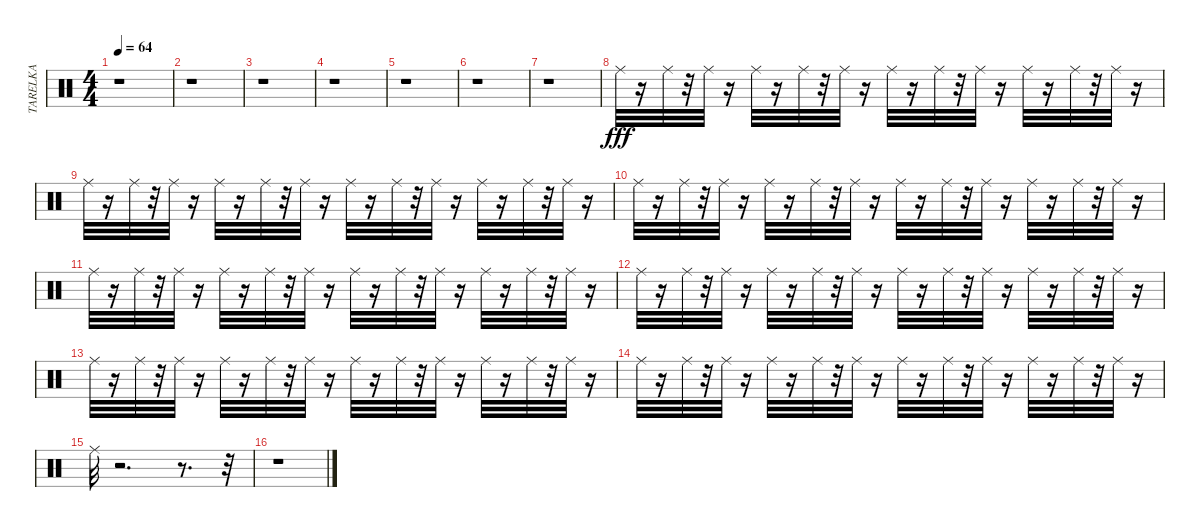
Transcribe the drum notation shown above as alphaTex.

\track ("TARELKA" "TARELKA") {instrument percussion}
\staff {score}
\articulation defaults
\ts (4 4)
\tempo 64
\clef neutral
\ks c
r.1{dy fff} |
r.1 |
r.1 |
r.1 |
r.1 |
r.1 |
r.1 |
"Ride (middle)".32 r.16 "Ride (middle)".32 r.32 "Ride (middle)".32 r.16 "Ride (middle)".32 r.16 "Ride (middle)".32 r.32 "Ride (middle)".32 r.16 "Ride (middle)".32 r.16 "Ride (middle)".32 r.32 "Ride (middle)".32 r.16 "Ride (middle)".32 r.16 "Ride (middle)".32 r.32 "Ride (middle)".32 r.16 |
"Ride (middle)".32 r.16 "Ride (middle)".32 r.32 "Ride (middle)".32 r.16 "Ride (middle)".32 r.16 "Ride (middle)".32 r.32 "Ride (middle)".32 r.16 "Ride (middle)".32 r.16 "Ride (middle)".32 r.32 "Ride (middle)".32 r.16 "Ride (middle)".32 r.16 "Ride (middle)".32 r.32 "Ride (middle)".32 r.16 |
"Ride (middle)".32 r.16 "Ride (middle)".32 r.32 "Ride (middle)".32 r.16 "Ride (middle)".32 r.16 "Ride (middle)".32 r.32 "Ride (middle)".32 r.16 "Ride (middle)".32 r.16 "Ride (middle)".32 r.32 "Ride (middle)".32 r.16 "Ride (middle)".32 r.16 "Ride (middle)".32 r.32 "Ride (middle)".32 r.16 |
"Ride (middle)".32 r.16 "Ride (middle)".32 r.32 "Ride (middle)".32 r.16 "Ride (middle)".32 r.16 "Ride (middle)".32 r.32 "Ride (middle)".32 r.16 "Ride (middle)".32 r.16 "Ride (middle)".32 r.32 "Ride (middle)".32 r.16 "Ride (middle)".32 r.16 "Ride (middle)".32 r.32 "Ride (middle)".32 r.16 |
"Ride (middle)".32 r.16 "Ride (middle)".32 r.32 "Ride (middle)".32 r.16 "Ride (middle)".32 r.16 "Ride (middle)".32 r.32 "Ride (middle)".32 r.16 "Ride (middle)".32 r.16 "Ride (middle)".32 r.32 "Ride (middle)".32 r.16 "Ride (middle)".32 r.16 "Ride (middle)".32 r.32 "Ride (middle)".32 r.16 |
"Ride (middle)".32 r.16 "Ride (middle)".32 r.32 "Ride (middle)".32 r.16 "Ride (middle)".32 r.16 "Ride (middle)".32 r.32 "Ride (middle)".32 r.16 "Ride (middle)".32 r.16 "Ride (middle)".32 r.32 "Ride (middle)".32 r.16 "Ride (middle)".32 r.16 "Ride (middle)".32 r.32 "Ride (middle)".32 r.16 |
"Ride (middle)".32 r.16 "Ride (middle)".32 r.32 "Ride (middle)".32 r.16 "Ride (middle)".32 r.16 "Ride (middle)".32 r.32 "Ride (middle)".32 r.16 "Ride (middle)".32 r.16 "Ride (middle)".32 r.32 "Ride (middle)".32 r.16 "Ride (middle)".32 r.16 "Ride (middle)".32 r.32 "Ride (middle)".32 r.16 |
"Ride (middle)".32 r.2{d} r.8{d} r.32 |
r.1
